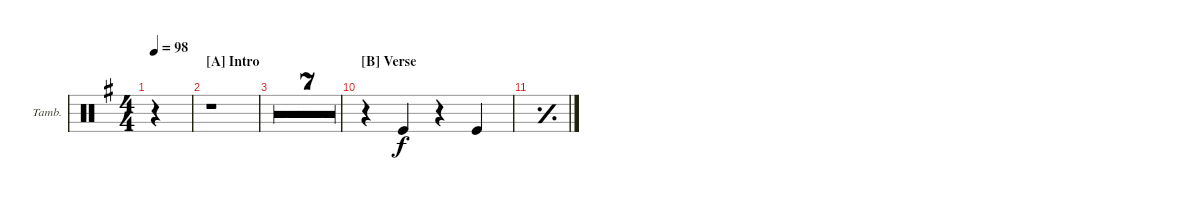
\defaultSystemsLayout 4
\bracketExtendMode groupsimilarinstruments
\firstSystemTrackNameOrientation horizontal
\otherSystemsTrackNameOrientation horizontal
\track ("Tambourine" "Tamb.") {multiBarRest instrument percussion}
\staff {score}
\articulation defaults
\ts (4 4)
\ac
\tempo 98
\clef neutral
\ks g
r.4{dy f} |
\section ("A" "Intro")
r.1 |
r.1 |
r.1 |
r.1 |
r.1 |
r.1 |
r.1 |
r.1 |
\section ("B" "Verse")
r.4 "Kick (hit)".4 r.4 "Kick (hit)".4 |
\simile simple
